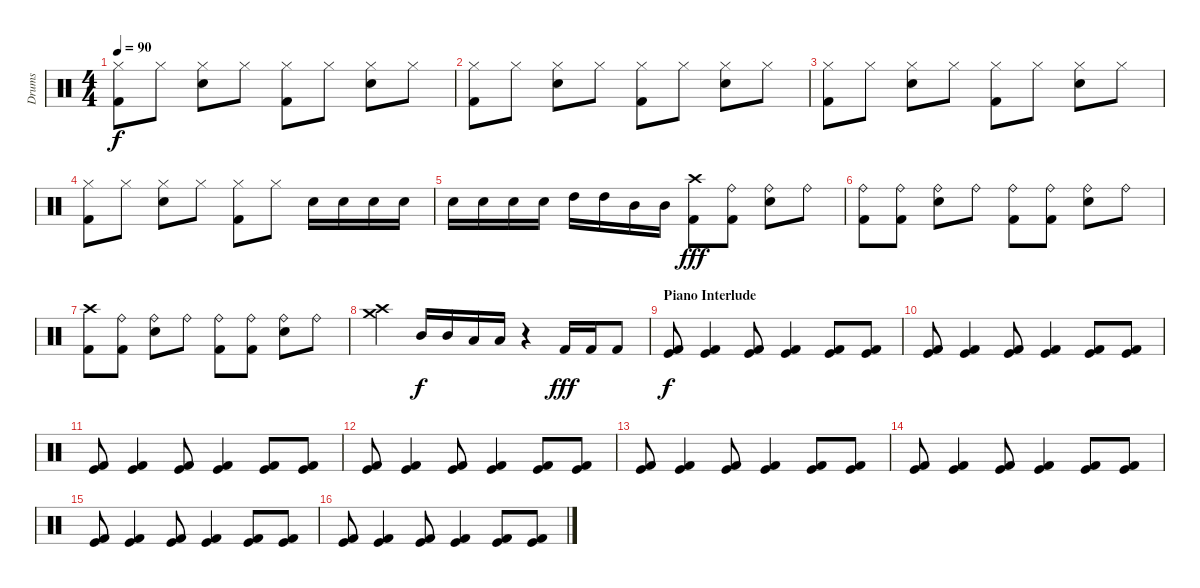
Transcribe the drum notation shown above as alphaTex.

\track ("Drums" "Drums") {instrument percussion}
\staff {score}
\articulation defaults
\ts (4 4)
\tempo 90
\clef neutral
\ks c
("Hi-Hat (closed)" "Kick (hit) 2").8{dy f} "Hi-Hat (closed)".8 ("Hi-Hat (closed)" "Electric Snare (hit)").8 "Hi-Hat (closed)".8 ("Hi-Hat (closed)" "Kick (hit) 2").8 "Hi-Hat (closed)".8 ("Hi-Hat (closed)" "Electric Snare (hit)").8 "Hi-Hat (closed)".8 |
("Hi-Hat (closed)" "Kick (hit) 2").8 "Hi-Hat (closed)".8 ("Hi-Hat (closed)" "Electric Snare (hit)").8 "Hi-Hat (closed)".8 ("Hi-Hat (closed)" "Kick (hit) 2").8 "Hi-Hat (closed)".8 ("Hi-Hat (closed)" "Electric Snare (hit)").8 "Hi-Hat (closed)".8 |
("Hi-Hat (closed)" "Kick (hit) 2").8 "Hi-Hat (closed)".8 ("Hi-Hat (closed)" "Electric Snare (hit)").8 "Hi-Hat (closed)".8 ("Hi-Hat (closed)" "Kick (hit) 2").8 "Hi-Hat (closed)".8 ("Hi-Hat (closed)" "Electric Snare (hit)").8 "Hi-Hat (closed)".8 |
("Hi-Hat (closed)" "Kick (hit) 2").8 "Hi-Hat (closed)".8 ("Hi-Hat (closed)" "Electric Snare (hit)").8 "Hi-Hat (closed)".8 ("Hi-Hat (closed)" "Kick (hit) 2").8 "Hi-Hat (closed)".8 "Electric Snare (hit)".16 "Electric Snare (hit)".16 "Electric Snare (hit)".16 "Electric Snare (hit)".16 |
"Electric Snare (hit)".16 "Electric Snare (hit)".16 "Electric Snare (hit)".16 "Electric Snare (hit)".16 "High Tom (hit)".16 "High Tom (hit)".16 "Mid Tom (hit)".16 "Mid Tom (hit)".16 ("Crash high (hit)" "Kick (hit) 2").8{dy fff} ("Ride (bell)" "Kick (hit) 2").8 ("Ride (bell)" "Electric Snare (hit)").8 "Ride (bell)".8 |
("Ride (bell)" "Kick (hit) 2").8 ("Ride (bell)" "Kick (hit) 2").8 ("Ride (bell)" "Electric Snare (hit)").8 "Ride (bell)".8 ("Ride (bell)" "Kick (hit) 2").8 ("Ride (bell)" "Kick (hit) 2").8 ("Ride (bell)" "Electric Snare (hit)").8 "Ride (bell)".8 |
("Crash high (hit)" "Kick (hit) 2").8 ("Ride (bell)" "Kick (hit) 2").8 ("Ride (bell)" "Electric Snare (hit)").8 "Ride (bell)".8 ("Ride (bell)" "Kick (hit) 2").8 ("Ride (bell)" "Kick (hit) 2").8 ("Ride (bell)" "Electric Snare (hit)").8 "Ride (bell)".8 |
("Crash high (hit)" "Crash medium (hit)").4 "Mid Tom (hit)".16{dy f} "Mid Tom (hit)".16 "Low Tom (hit)".16 "Low Tom (hit)".16 r.4 "Kick (hit) 2".16{dy fff} "Kick (hit) 2".16 "Kick (hit) 2".8 |
\section ("" "Piano Interlude")
("Kick (hit)" "Kick (hit) 2").8{dy f} ("Kick (hit)" "Kick (hit) 2").4 ("Kick (hit)" "Kick (hit) 2").8 ("Kick (hit)" "Kick (hit) 2").4 ("Kick (hit)" "Kick (hit) 2").8 ("Kick (hit)" "Kick (hit) 2").8 |
("Kick (hit)" "Kick (hit) 2").8 ("Kick (hit)" "Kick (hit) 2").4 ("Kick (hit)" "Kick (hit) 2").8 ("Kick (hit)" "Kick (hit) 2").4 ("Kick (hit)" "Kick (hit) 2").8 ("Kick (hit)" "Kick (hit) 2").8 |
("Kick (hit)" "Kick (hit) 2").8 ("Kick (hit)" "Kick (hit) 2").4 ("Kick (hit)" "Kick (hit) 2").8 ("Kick (hit)" "Kick (hit) 2").4 ("Kick (hit)" "Kick (hit) 2").8 ("Kick (hit)" "Kick (hit) 2").8 |
("Kick (hit)" "Kick (hit) 2").8 ("Kick (hit)" "Kick (hit) 2").4 ("Kick (hit)" "Kick (hit) 2").8 ("Kick (hit)" "Kick (hit) 2").4 ("Kick (hit)" "Kick (hit) 2").8 ("Kick (hit)" "Kick (hit) 2").8 |
("Kick (hit)" "Kick (hit) 2").8 ("Kick (hit)" "Kick (hit) 2").4 ("Kick (hit)" "Kick (hit) 2").8 ("Kick (hit)" "Kick (hit) 2").4 ("Kick (hit)" "Kick (hit) 2").8 ("Kick (hit)" "Kick (hit) 2").8 |
("Kick (hit)" "Kick (hit) 2").8 ("Kick (hit)" "Kick (hit) 2").4 ("Kick (hit)" "Kick (hit) 2").8 ("Kick (hit)" "Kick (hit) 2").4 ("Kick (hit)" "Kick (hit) 2").8 ("Kick (hit)" "Kick (hit) 2").8 |
("Kick (hit)" "Kick (hit) 2").8 ("Kick (hit)" "Kick (hit) 2").4 ("Kick (hit)" "Kick (hit) 2").8 ("Kick (hit)" "Kick (hit) 2").4 ("Kick (hit)" "Kick (hit) 2").8 ("Kick (hit)" "Kick (hit) 2").8 |
("Kick (hit)" "Kick (hit) 2").8 ("Kick (hit)" "Kick (hit) 2").4 ("Kick (hit)" "Kick (hit) 2").8 ("Kick (hit)" "Kick (hit) 2").4 ("Kick (hit)" "Kick (hit) 2").8 ("Kick (hit)" "Kick (hit) 2").8
